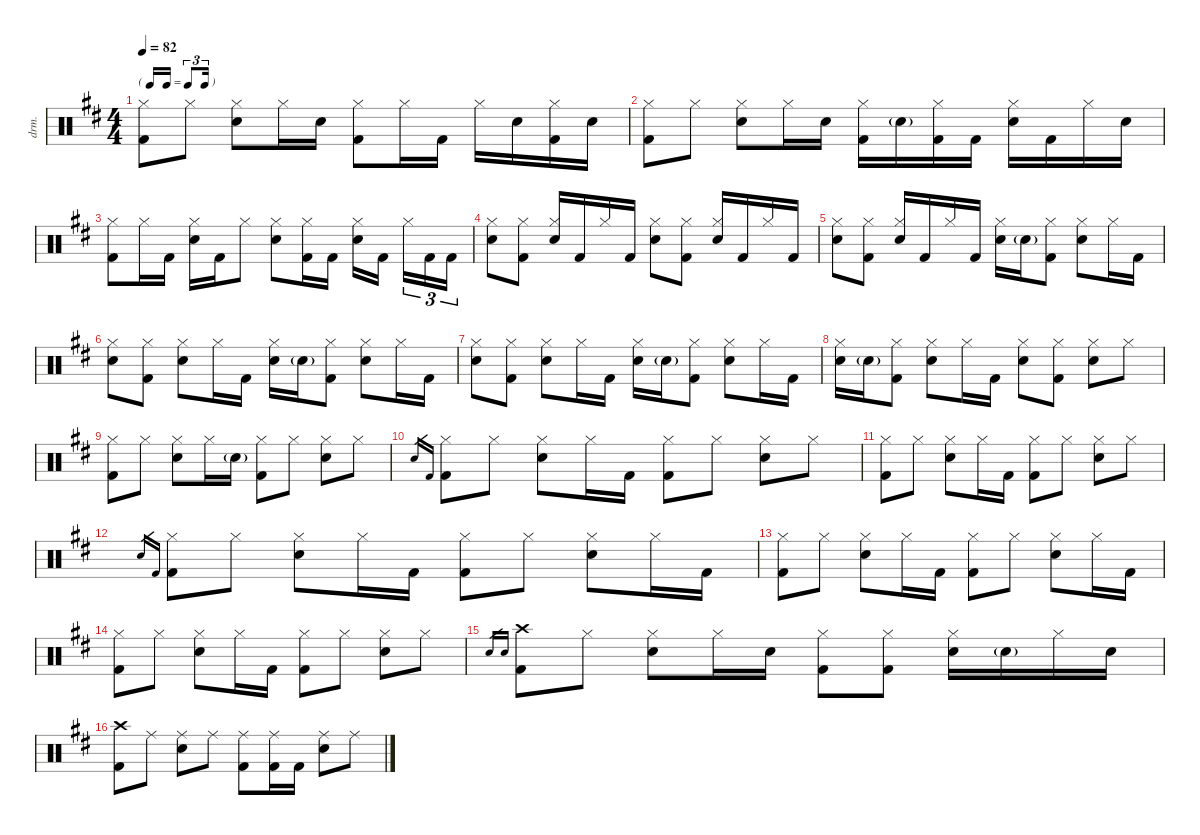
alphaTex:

\defaultSystemsLayout 4
\hideDynamics
\bracketExtendMode nobrackets
\otherSystemsTrackNameOrientation horizontal
\track ("Buddy" "drm.") {instrument percussion}
\staff {score}
\articulation defaults
\ts (4 4)
\tf triplet16th
\tempo 82
\clef neutral
\ks d
("Hi-Hat (closed)"{acc forcenatural} "Kick (hit) 2"{acc forcenatural}).8{dy mf beam Down} "Hi-Hat (closed)"{acc forcenatural}.8{beam Down} ("Hi-Hat (closed)"{acc forcenatural} "Snare (hit) 2"{acc forcenatural}).8{beam Down} "Hi-Hat (closed)"{acc forcenatural}.16{beam Down} "Snare (hit) 2"{acc forcenatural}.16{beam Down} ("Hi-Hat (closed)"{acc forcenatural} "Kick (hit) 2"{acc forcenatural}).8{beam Down} "Hi-Hat (closed)"{acc forcenatural}.16{beam Down} "Kick (hit) 2"{acc forcenatural}.16{beam Down} "Hi-Hat (closed)"{acc forcenatural}.16{beam Down} "Snare (hit) 2"{acc forcenatural}.16{beam Down} ("Hi-Hat (closed)"{acc forcenatural} "Kick (hit) 2"{acc forcenatural}).16{beam Down} "Snare (hit) 2"{acc forcenatural}.16{beam Down} |
("Hi-Hat (closed)"{acc forcenatural} "Kick (hit) 2"{acc forcenatural}).8{dy f beam Down} "Hi-Hat (closed)"{acc forcenatural}.8{beam Down} ("Hi-Hat (closed)"{acc forcenatural} "Snare (hit) 2"{acc forcenatural}).8{beam Down} "Hi-Hat (closed)"{acc forcenatural}.16{beam Down} "Snare (hit) 2"{acc forcenatural}.16{beam Down} ("Hi-Hat (closed)"{acc forcenatural} "Kick (hit) 2"{acc forcenatural}).16{beam Down} "Snare (hit) 2"{g acc forcenatural}.16{dy mf beam Down} ("Hi-Hat (closed)"{acc forcenatural} "Kick (hit) 2"{acc forcenatural}).16{dy f beam Down} "Kick (hit) 2"{acc forcenatural}.16{beam Down} ("Hi-Hat (closed)"{acc forcenatural} "Snare (hit) 2"{acc forcenatural}).16{beam Down} "Kick (hit) 2"{acc forcenatural}.16{beam Down} "Hi-Hat (closed)"{acc forcenatural}.16{beam Down} "Snare (hit) 2"{acc forcenatural}.16{beam Down} |
("Hi-Hat (closed)"{acc forcenatural} "Kick (hit) 2"{acc forcenatural}).8{beam Down} "Hi-Hat (closed)"{acc forcenatural}.16{beam Down} "Kick (hit) 2"{acc forcenatural}.16{beam Down} ("Hi-Hat (closed)"{acc forcenatural} "Snare (hit) 2"{acc forcenatural}).16{beam Down} "Kick (hit) 2"{acc forcenatural}.16{beam Down} "Hi-Hat (closed)"{acc forcenatural}.8{beam Down} ("Hi-Hat (closed)"{acc forcenatural} "Snare (hit) 2"{acc forcenatural}).8{beam Down} ("Hi-Hat (closed)"{acc forcenatural} "Kick (hit) 2"{acc forcenatural}).16{beam Down} "Kick (hit) 2"{acc forcenatural}.16{beam Down} ("Hi-Hat (closed)"{acc forcenatural} "Snare (hit) 2"{acc forcenatural}).16{beam Down} "Kick (hit) 2"{acc forcenatural}.16{beam Down} "Hi-Hat (closed)"{acc forcenatural}.16{tu (3 2) beam Down} "Kick (hit) 2"{acc forcenatural}.16{tu (3 2) beam Down} "Kick (hit) 2"{acc forcenatural}.16{tu (3 2) beam Down} |
("Hi-Hat (closed)"{acc forcenatural} "Snare (hit) 2"{acc forcenatural}).8{beam Down} ("Hi-Hat (closed)"{acc forcenatural} "Kick (hit) 2"{acc forcenatural}).8{beam Down} ("Hi-Hat (closed)"{acc forcenatural} "Snare (hit) 2"{acc forcenatural}).16{beam Up} "Kick (hit) 2"{acc forcenatural}.16{beam Up} "Hi-Hat (closed)"{acc forcenatural}.16{beam Up} "Kick (hit) 2"{acc forcenatural}.16{beam Up} ("Hi-Hat (closed)"{acc forcenatural} "Snare (hit) 2"{acc forcenatural}).8{beam Down} ("Hi-Hat (closed)"{acc forcenatural} "Kick (hit) 2"{acc forcenatural}).8{beam Down} ("Hi-Hat (closed)"{acc forcenatural} "Snare (hit) 2"{acc forcenatural}).16{beam Up} "Kick (hit) 2"{acc forcenatural}.16{beam Up} "Hi-Hat (closed)"{acc forcenatural}.16{beam Up} "Kick (hit) 2"{acc forcenatural}.16{beam Up} |
("Hi-Hat (closed)"{acc forcenatural} "Snare (hit) 2"{acc forcenatural}).8{beam Down} ("Hi-Hat (closed)"{acc forcenatural} "Kick (hit) 2"{acc forcenatural}).8{beam Down} ("Hi-Hat (closed)"{acc forcenatural} "Snare (hit) 2"{acc forcenatural}).16{beam Up} "Kick (hit) 2"{acc forcenatural}.16{beam Up} "Hi-Hat (closed)"{acc forcenatural}.16{beam Up} "Kick (hit) 2"{acc forcenatural}.16{beam Up} ("Hi-Hat (closed)"{acc forcenatural} "Snare (hit) 2"{acc forcenatural}).16{beam Down} "Snare (hit) 2"{g acc forcenatural}.16{dy mf beam Down} ("Hi-Hat (closed)"{acc forcenatural} "Kick (hit) 2"{acc forcenatural}).8{dy f beam Down} ("Hi-Hat (closed)"{acc forcenatural} "Snare (hit) 2"{acc forcenatural}).8{beam Down} "Hi-Hat (closed)"{acc forcenatural}.16{beam Down} "Kick (hit) 2"{acc forcenatural}.16{beam Down} |
("Hi-Hat (closed)"{acc forcenatural} "Snare (hit) 2"{acc forcenatural}).8{beam Down} ("Hi-Hat (closed)"{acc forcenatural} "Kick (hit) 2"{acc forcenatural}).8{beam Down} ("Hi-Hat (closed)"{acc forcenatural} "Snare (hit) 2"{acc forcenatural}).8{beam Down} "Hi-Hat (closed)"{acc forcenatural}.16{beam Down} "Kick (hit) 2"{acc forcenatural}.16{beam Down} ("Hi-Hat (closed)"{acc forcenatural} "Snare (hit) 2"{acc forcenatural}).16{beam Down} "Snare (hit) 2"{g acc forcenatural}.16{dy mf beam Down} ("Hi-Hat (closed)"{acc forcenatural} "Kick (hit) 2"{acc forcenatural}).8{dy f beam Down} ("Hi-Hat (closed)"{acc forcenatural} "Snare (hit) 2"{acc forcenatural}).8{beam Down} "Hi-Hat (closed)"{acc forcenatural}.16{beam Down} "Kick (hit) 2"{acc forcenatural}.16{beam Down} |
("Hi-Hat (closed)"{acc forcenatural} "Snare (hit) 2"{acc forcenatural}).8{beam Down} ("Hi-Hat (closed)"{acc forcenatural} "Kick (hit) 2"{acc forcenatural}).8{beam Down} ("Hi-Hat (closed)"{acc forcenatural} "Snare (hit) 2"{acc forcenatural}).8{beam Down} "Hi-Hat (closed)"{acc forcenatural}.16{beam Down} "Kick (hit) 2"{acc forcenatural}.16{beam Down} ("Hi-Hat (closed)"{acc forcenatural} "Snare (hit) 2"{acc forcenatural}).16{beam Down} "Snare (hit) 2"{g acc forcenatural}.16{dy mf beam Down} ("Hi-Hat (closed)"{acc forcenatural} "Kick (hit) 2"{acc forcenatural}).8{dy f beam Down} ("Hi-Hat (closed)"{acc forcenatural} "Snare (hit) 2"{acc forcenatural}).8{beam Down} "Hi-Hat (closed)"{acc forcenatural}.16{beam Down} "Kick (hit) 2"{acc forcenatural}.16{beam Down} |
("Hi-Hat (closed)"{acc forcenatural} "Snare (hit) 2"{acc forcenatural}).16{beam Down} "Snare (hit) 2"{g acc forcenatural}.16{dy mf beam Down} ("Hi-Hat (closed)"{acc forcenatural} "Kick (hit) 2"{acc forcenatural}).8{dy f beam Down} ("Hi-Hat (closed)"{acc forcenatural} "Snare (hit) 2"{acc forcenatural}).8{beam Down} "Hi-Hat (closed)"{acc forcenatural}.16{beam Down} "Kick (hit) 2"{acc forcenatural}.16{beam Down} ("Hi-Hat (closed)"{acc forcenatural} "Snare (hit) 2"{acc forcenatural}).8{beam Down} ("Hi-Hat (closed)"{acc forcenatural} "Kick (hit) 2"{acc forcenatural}).8{beam Down} ("Hi-Hat (closed)"{acc forcenatural} "Snare (hit) 2"{acc forcenatural}).8{beam Down} "Hi-Hat (closed)"{acc forcenatural}.8{beam Down} |
("Hi-Hat (closed)"{acc forcenatural} "Kick (hit) 2"{acc forcenatural}).8{beam Down} "Hi-Hat (closed)"{acc forcenatural}.8{beam Down} ("Hi-Hat (closed)"{acc forcenatural} "Snare (hit) 2"{acc forcenatural}).8{beam Down} "Hi-Hat (closed)"{acc forcenatural}.16{beam Down} "Snare (hit) 2"{g acc forcenatural}.16{dy mf beam Down} ("Hi-Hat (closed)"{acc forcenatural} "Kick (hit) 2"{acc forcenatural}).8{dy f beam Down} "Hi-Hat (closed)"{acc forcenatural}.8{beam Down} ("Hi-Hat (closed)"{acc forcenatural} "Snare (hit) 2"{acc forcenatural}).8{beam Down} "Hi-Hat (closed)"{acc forcenatural}.8{beam Down} |
"Snare (hit) 2"{acc forcenatural}.16{gr dy ppp beam Up} "Kick (hit) 2"{acc forcenatural}.16{gr beam Up} ("Hi-Hat (closed)"{acc forcenatural} "Kick (hit) 2"{acc forcenatural}).8{dy f beam Down} "Hi-Hat (closed)"{acc forcenatural}.8{beam Down} ("Hi-Hat (closed)"{acc forcenatural} "Snare (hit) 2"{acc forcenatural}).8{beam Down} "Hi-Hat (closed)"{acc forcenatural}.16{beam Down} "Kick (hit) 2"{acc forcenatural}.16{beam Down} ("Hi-Hat (closed)"{acc forcenatural} "Kick (hit) 2"{acc forcenatural}).8{beam Down} "Hi-Hat (closed)"{acc forcenatural}.8{beam Down} ("Hi-Hat (closed)"{acc forcenatural} "Snare (hit) 2"{acc forcenatural}).8{beam Down} "Hi-Hat (closed)"{acc forcenatural}.8{beam Down} |
("Hi-Hat (closed)"{acc forcenatural} "Kick (hit) 2"{acc forcenatural}).8{beam Down} "Hi-Hat (closed)"{acc forcenatural}.8{beam Down} ("Hi-Hat (closed)"{acc forcenatural} "Snare (hit) 2"{acc forcenatural}).8{beam Down} "Hi-Hat (closed)"{acc forcenatural}.16{beam Down} "Kick (hit) 2"{acc forcenatural}.16{beam Down} ("Hi-Hat (closed)"{acc forcenatural} "Kick (hit) 2"{acc forcenatural}).8{beam Down} "Hi-Hat (closed)"{acc forcenatural}.8{beam Down} ("Hi-Hat (closed)"{acc forcenatural} "Snare (hit) 2"{acc forcenatural}).8{beam Down} "Hi-Hat (closed)"{acc forcenatural}.8{beam Down} |
"Snare (hit) 2"{acc forcenatural}.16{gr dy ppp beam Up} "Kick (hit) 2"{acc forcenatural}.16{gr beam Up} ("Hi-Hat (closed)"{acc forcenatural} "Kick (hit) 2"{acc forcenatural}).8{dy f beam Down} "Hi-Hat (closed)"{acc forcenatural}.8{beam Down} ("Hi-Hat (closed)"{acc forcenatural} "Snare (hit) 2"{acc forcenatural}).8{beam Down} "Hi-Hat (closed)"{acc forcenatural}.16{beam Down} "Kick (hit) 2"{acc forcenatural}.16{beam Down} ("Hi-Hat (closed)"{acc forcenatural} "Kick (hit) 2"{acc forcenatural}).8{beam Down} "Hi-Hat (closed)"{acc forcenatural}.8{beam Down} ("Hi-Hat (closed)"{acc forcenatural} "Snare (hit) 2"{acc forcenatural}).8{beam Down} "Hi-Hat (closed)"{acc forcenatural}.16{beam Down} "Kick (hit) 2"{acc forcenatural}.16{beam Down} |
("Hi-Hat (closed)"{acc forcenatural} "Kick (hit) 2"{acc forcenatural}).8{beam Down} "Hi-Hat (closed)"{acc forcenatural}.8{beam Down} ("Hi-Hat (closed)"{acc forcenatural} "Snare (hit) 2"{acc forcenatural}).8{beam Down} "Hi-Hat (closed)"{acc forcenatural}.16{beam Down} "Kick (hit) 2"{acc forcenatural}.16{beam Down} ("Hi-Hat (closed)"{acc forcenatural} "Kick (hit) 2"{acc forcenatural}).8{beam Down} "Hi-Hat (closed)"{acc forcenatural}.8{beam Down} ("Hi-Hat (closed)"{acc forcenatural} "Snare (hit) 2"{acc forcenatural}).8{beam Down} "Hi-Hat (closed)"{acc forcenatural}.16{beam Down} "Kick (hit) 2"{acc forcenatural}.16{beam Down} |
("Hi-Hat (closed)"{acc forcenatural} "Kick (hit) 2"{acc forcenatural}).8{beam Down} "Hi-Hat (closed)"{acc forcenatural}.8{beam Down} ("Hi-Hat (closed)"{acc forcenatural} "Snare (hit) 2"{acc forcenatural}).8{beam Down} "Hi-Hat (closed)"{acc forcenatural}.16{beam Down} "Kick (hit) 2"{acc forcenatural}.16{beam Down} ("Hi-Hat (closed)"{acc forcenatural} "Kick (hit) 2"{acc forcenatural}).8{beam Down} "Hi-Hat (closed)"{acc forcenatural}.8{beam Down} ("Hi-Hat (closed)"{acc forcenatural} "Snare (hit) 2"{acc forcenatural}).8{beam Down} "Hi-Hat (closed)"{acc forcenatural}.8{beam Down} |
"Snare (hit) 2"{acc forcenatural}.16{gr dy ppp beam Up} "Snare (hit) 2"{acc forcenatural}.16{gr beam Up} ("Crash high (hit)"{acc forcenatural} "Kick (hit) 2"{acc forcenatural}).8{dy f beam Down} "Hi-Hat (closed)"{acc forcenatural}.8{beam Down} ("Hi-Hat (closed)"{acc forcenatural} "Snare (hit) 2"{acc forcenatural}).8{beam Down} "Hi-Hat (closed)"{acc forcenatural}.16{beam Down} "Snare (hit) 2"{acc forcenatural}.16{beam Down} ("Hi-Hat (closed)"{acc forcenatural} "Kick (hit) 2"{acc forcenatural}).8{beam Down} ("Hi-Hat (closed)"{acc forcenatural} "Kick (hit) 2"{acc forcenatural}).8{beam Down} ("Hi-Hat (closed)"{acc forcenatural} "Snare (hit) 2"{acc forcenatural}).16{beam Down} "Snare (hit) 2"{g acc forcenatural}.16{dy mf beam Down} "Hi-Hat (closed)"{acc forcenatural}.16{dy f beam Down} "Snare (hit) 2"{acc forcenatural}.16{beam Down} |
("Crash high (hit)"{acc forcenatural} "Kick (hit) 2"{acc forcenatural}).8{beam Down} "Ride (middle)"{acc forcenatural}.8{beam Down} ("Ride (middle)"{acc forcenatural} "Snare (hit) 2"{acc forcenatural}).8{beam Down} "Ride (middle)"{acc forcenatural}.8{beam Down} ("Ride (middle)"{acc forcenatural} "Kick (hit) 2"{acc forcenatural}).8{beam Down} ("Ride (middle)"{acc forcenatural} "Kick (hit) 2"{acc forcenatural}).16{beam Down} "Kick (hit) 2"{acc forcenatural}.16{beam Down} ("Ride (middle)"{acc forcenatural} "Snare (hit) 2"{acc forcenatural}).8{beam Down} "Ride (middle)"{acc forcenatural}.8{beam Down}
